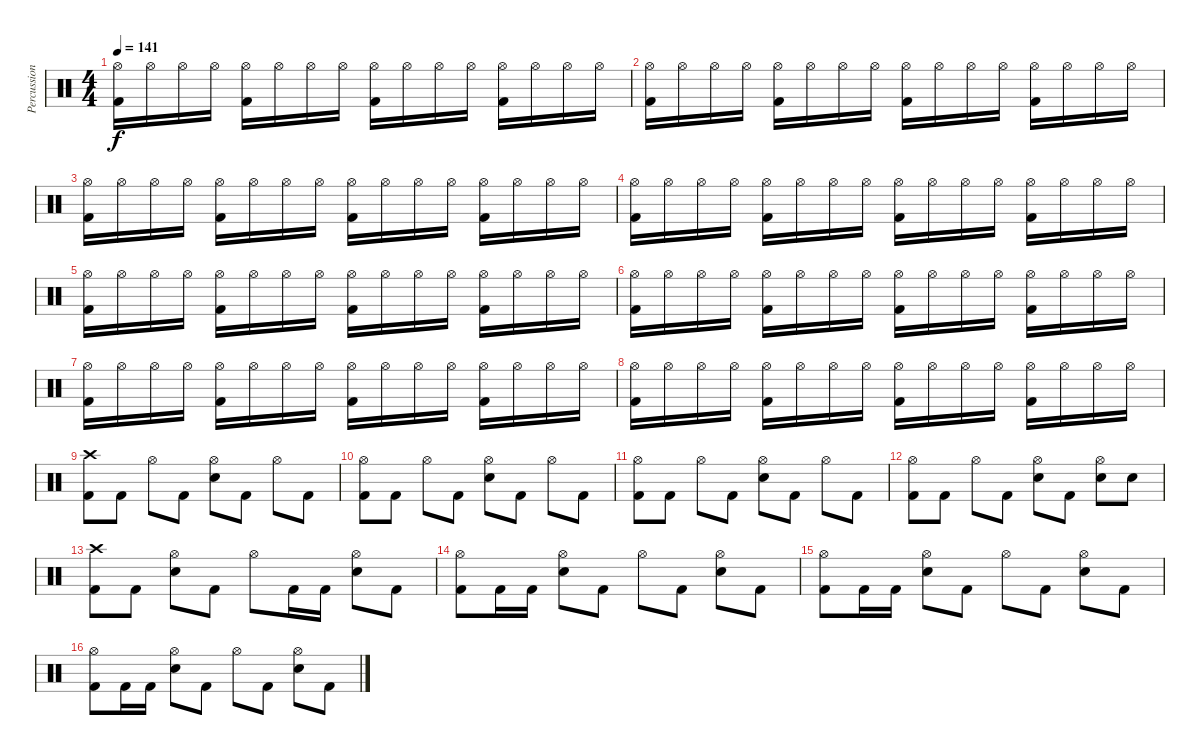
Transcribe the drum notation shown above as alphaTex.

\track ("Percussion" "Percussion") {instrument percussion}
\staff {score}
\articulation defaults
\ts (4 4)
\tempo 141
\clef neutral
\ks c
("Hi-Hat (open)" "Kick (hit) 2").16{dy f} "Hi-Hat (open)".16 "Hi-Hat (open)".16 "Hi-Hat (open)".16 ("Hi-Hat (open)" "Kick (hit) 2").16 "Hi-Hat (open)".16 "Hi-Hat (open)".16 "Hi-Hat (open)".16 ("Hi-Hat (open)" "Kick (hit) 2").16 "Hi-Hat (open)".16 "Hi-Hat (open)".16 "Hi-Hat (open)".16 ("Hi-Hat (open)" "Kick (hit) 2").16 "Hi-Hat (open)".16 "Hi-Hat (open)".16 "Hi-Hat (open)".16 |
("Hi-Hat (open)" "Kick (hit) 2").16 "Hi-Hat (open)".16 "Hi-Hat (open)".16 "Hi-Hat (open)".16 ("Hi-Hat (open)" "Kick (hit) 2").16 "Hi-Hat (open)".16 "Hi-Hat (open)".16 "Hi-Hat (open)".16 ("Hi-Hat (open)" "Kick (hit) 2").16 "Hi-Hat (open)".16 "Hi-Hat (open)".16 "Hi-Hat (open)".16 ("Hi-Hat (open)" "Kick (hit) 2").16 "Hi-Hat (open)".16 "Hi-Hat (open)".16 "Hi-Hat (open)".16 |
("Hi-Hat (open)" "Kick (hit) 2").16 "Hi-Hat (open)".16 "Hi-Hat (open)".16 "Hi-Hat (open)".16 ("Hi-Hat (open)" "Kick (hit) 2").16 "Hi-Hat (open)".16 "Hi-Hat (open)".16 "Hi-Hat (open)".16 ("Hi-Hat (open)" "Kick (hit) 2").16 "Hi-Hat (open)".16 "Hi-Hat (open)".16 "Hi-Hat (open)".16 ("Hi-Hat (open)" "Kick (hit) 2").16 "Hi-Hat (open)".16 "Hi-Hat (open)".16 "Hi-Hat (open)".16 |
("Hi-Hat (open)" "Kick (hit) 2").16 "Hi-Hat (open)".16 "Hi-Hat (open)".16 "Hi-Hat (open)".16 ("Hi-Hat (open)" "Kick (hit) 2").16 "Hi-Hat (open)".16 "Hi-Hat (open)".16 "Hi-Hat (open)".16 ("Hi-Hat (open)" "Kick (hit) 2").16 "Hi-Hat (open)".16 "Hi-Hat (open)".16 "Hi-Hat (open)".16 ("Hi-Hat (open)" "Kick (hit) 2").16 "Hi-Hat (open)".16 "Hi-Hat (open)".16 "Hi-Hat (open)".16 |
("Hi-Hat (open)" "Kick (hit) 2").16 "Hi-Hat (open)".16 "Hi-Hat (open)".16 "Hi-Hat (open)".16 ("Hi-Hat (open)" "Kick (hit) 2").16 "Hi-Hat (open)".16 "Hi-Hat (open)".16 "Hi-Hat (open)".16 ("Hi-Hat (open)" "Kick (hit) 2").16 "Hi-Hat (open)".16 "Hi-Hat (open)".16 "Hi-Hat (open)".16 ("Hi-Hat (open)" "Kick (hit) 2").16 "Hi-Hat (open)".16 "Hi-Hat (open)".16 "Hi-Hat (open)".16 |
("Hi-Hat (open)" "Kick (hit) 2").16 "Hi-Hat (open)".16 "Hi-Hat (open)".16 "Hi-Hat (open)".16 ("Hi-Hat (open)" "Kick (hit) 2").16 "Hi-Hat (open)".16 "Hi-Hat (open)".16 "Hi-Hat (open)".16 ("Hi-Hat (open)" "Kick (hit) 2").16 "Hi-Hat (open)".16 "Hi-Hat (open)".16 "Hi-Hat (open)".16 ("Hi-Hat (open)" "Kick (hit) 2").16 "Hi-Hat (open)".16 "Hi-Hat (open)".16 "Hi-Hat (open)".16 |
("Hi-Hat (open)" "Kick (hit) 2").16 "Hi-Hat (open)".16 "Hi-Hat (open)".16 "Hi-Hat (open)".16 ("Hi-Hat (open)" "Kick (hit) 2").16 "Hi-Hat (open)".16 "Hi-Hat (open)".16 "Hi-Hat (open)".16 ("Hi-Hat (open)" "Kick (hit) 2").16 "Hi-Hat (open)".16 "Hi-Hat (open)".16 "Hi-Hat (open)".16 ("Hi-Hat (open)" "Kick (hit) 2").16 "Hi-Hat (open)".16 "Hi-Hat (open)".16 "Hi-Hat (open)".16 |
("Hi-Hat (open)" "Kick (hit) 2").16 "Hi-Hat (open)".16 "Hi-Hat (open)".16 "Hi-Hat (open)".16 ("Hi-Hat (open)" "Kick (hit) 2").16 "Hi-Hat (open)".16 "Hi-Hat (open)".16 "Hi-Hat (open)".16 ("Hi-Hat (open)" "Kick (hit) 2").16 "Hi-Hat (open)".16 "Hi-Hat (open)".16 "Hi-Hat (open)".16 ("Hi-Hat (open)" "Kick (hit) 2").16 "Hi-Hat (open)".16 "Hi-Hat (open)".16 "Hi-Hat (open)".16 |
("Crash high (hit)" "Kick (hit) 2").8 "Kick (hit) 2".8 "Hi-Hat (open)".8 "Kick (hit) 2".8 ("Hi-Hat (open)" "Electric Snare (hit)").8 "Kick (hit) 2".8 "Hi-Hat (open)".8 "Kick (hit) 2".8 |
("Hi-Hat (open)" "Kick (hit) 2").8 "Kick (hit) 2".8 "Hi-Hat (open)".8 "Kick (hit) 2".8 ("Hi-Hat (open)" "Electric Snare (hit)").8 "Kick (hit) 2".8 "Hi-Hat (open)".8 "Kick (hit) 2".8 |
("Hi-Hat (open)" "Kick (hit) 2").8 "Kick (hit) 2".8 "Hi-Hat (open)".8 "Kick (hit) 2".8 ("Hi-Hat (open)" "Electric Snare (hit)").8 "Kick (hit) 2".8 "Hi-Hat (open)".8 "Kick (hit) 2".8 |
("Hi-Hat (open)" "Kick (hit) 2").8 "Kick (hit) 2".8 "Hi-Hat (open)".8 "Kick (hit) 2".8 ("Hi-Hat (open)" "Electric Snare (hit)").8 "Kick (hit) 2".8 ("Hi-Hat (open)" "Electric Snare (hit)").8 "Electric Snare (hit)".8 |
("Crash high (hit)" "Kick (hit) 2").8 "Kick (hit) 2".8 ("Hi-Hat (open)" "Electric Snare (hit)").8 "Kick (hit) 2".8 "Hi-Hat (open)".8 "Kick (hit) 2".16 "Kick (hit) 2".16 ("Hi-Hat (open)" "Electric Snare (hit)").8 "Kick (hit) 2".8 |
("Hi-Hat (open)" "Kick (hit) 2").8 "Kick (hit) 2".16 "Kick (hit) 2".16 ("Hi-Hat (open)" "Electric Snare (hit)").8 "Kick (hit) 2".8 "Hi-Hat (open)".8 "Kick (hit) 2".8 ("Hi-Hat (open)" "Electric Snare (hit)").8 "Kick (hit) 2".8 |
("Hi-Hat (open)" "Kick (hit) 2").8 "Kick (hit) 2".16 "Kick (hit) 2".16 ("Hi-Hat (open)" "Electric Snare (hit)").8 "Kick (hit) 2".8 "Hi-Hat (open)".8 "Kick (hit) 2".8 ("Hi-Hat (open)" "Electric Snare (hit)").8 "Kick (hit) 2".8 |
("Hi-Hat (open)" "Kick (hit) 2").8 "Kick (hit) 2".16 "Kick (hit) 2".16 ("Hi-Hat (open)" "Electric Snare (hit)").8 "Kick (hit) 2".8 "Hi-Hat (open)".8 "Kick (hit) 2".8 ("Hi-Hat (open)" "Electric Snare (hit)").8 "Kick (hit) 2".8
